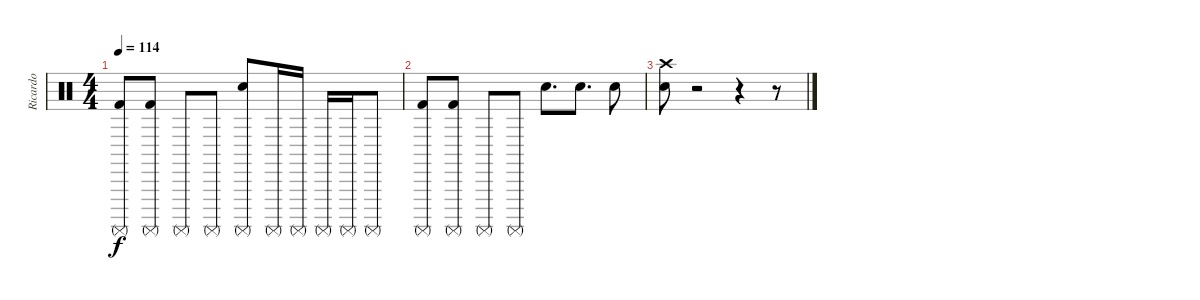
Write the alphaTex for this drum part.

\track ("Ricardo" "Ricardo") {instrument percussion}
\staff {score}
\articulation defaults
\ts (4 4)
\tempo 114
\clef neutral
\ks c
("Kick (hit) 2" "Surdo (mute)").8{dy f} ("Kick (hit) 2" "Surdo (mute)").8 "Surdo (mute)".8 "Surdo (mute)".8 ("Snare (hit) 2" "Surdo (mute)").8 "Surdo (mute)".16 "Surdo (mute)".16 "Surdo (mute)".16 "Surdo (mute)".16 "Surdo (mute)".8 |
("Kick (hit) 2" "Surdo (mute)").8 ("Kick (hit) 2" "Surdo (mute)").8 "Surdo (mute)".8 "Surdo (mute)".8 "Snare (hit) 2".8{d} "Snare (hit) 2".8{d} "Snare (hit) 2".8 |
("Crash high (hit)" "Snare (hit) 2").8 r.2 r.4 r.8
